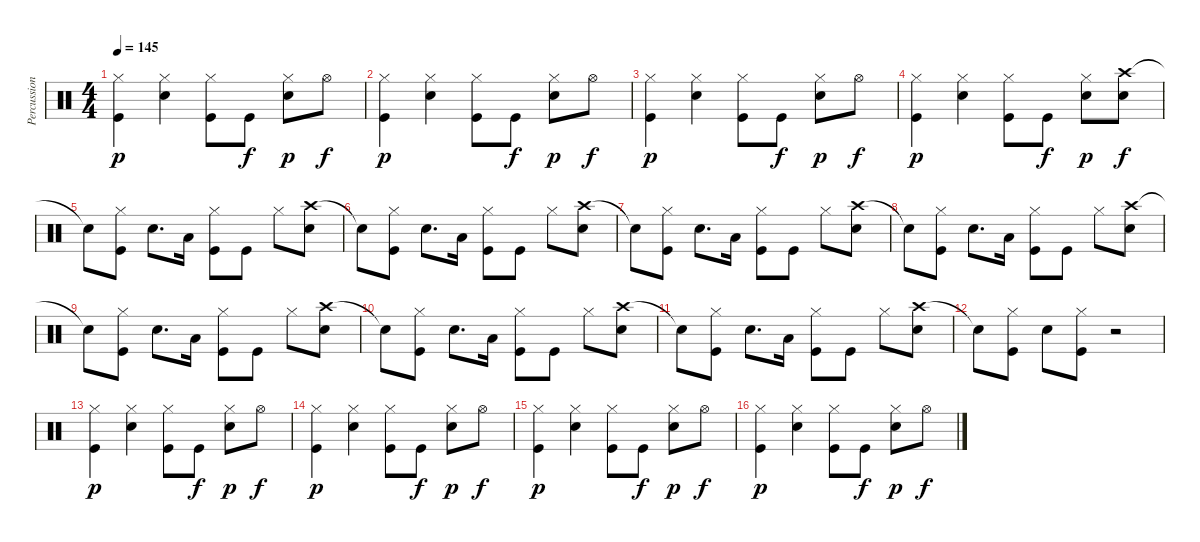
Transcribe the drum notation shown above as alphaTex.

\track ("Percussion" "Percussion") {instrument percussion}
\staff {score}
\articulation defaults
\ts (4 4)
\tempo 145
\clef neutral
\ks c
("Hi-Hat (closed)" "Kick (hit)").4{dy p} ("Hi-Hat (closed)" "Snare (hit) 2").4 ("Hi-Hat (closed)" "Kick (hit)").8 "Kick (hit)".8{dy f} ("Hi-Hat (closed)" "Snare (hit) 2").8{dy p} "Hi-Hat (open)".8{dy f} |
("Hi-Hat (closed)" "Kick (hit)").4{dy p} ("Hi-Hat (closed)" "Snare (hit) 2").4 ("Hi-Hat (closed)" "Kick (hit)").8 "Kick (hit)".8{dy f} ("Hi-Hat (closed)" "Snare (hit) 2").8{dy p} "Hi-Hat (open)".8{dy f} |
("Hi-Hat (closed)" "Kick (hit)").4{dy p} ("Hi-Hat (closed)" "Snare (hit) 2").4 ("Hi-Hat (closed)" "Kick (hit)").8 "Kick (hit)".8{dy f} ("Hi-Hat (closed)" "Snare (hit) 2").8{dy p} "Hi-Hat (open)".8{dy f} |
("Hi-Hat (closed)" "Kick (hit)").4{dy p} ("Hi-Hat (closed)" "Snare (hit) 2").4 ("Hi-Hat (closed)" "Kick (hit)").8 "Kick (hit)".8{dy f} ("Hi-Hat (closed)" "Snare (hit) 2").8{dy p} ("Crash high (hit)" "Snare (hit) 2").8{dy f} |
"Snare (hit) 2"{t}.8 ("Hi-Hat (closed)" "Kick (hit)").8 "Snare (hit) 2".8{d} "Low Tom (hit)".16 ("Hi-Hat (closed)" "Kick (hit)").8 "Kick (hit)".8 "Hi-Hat (closed)".8 ("Crash high (hit)" "Snare (hit) 2").8 |
"Snare (hit) 2"{t}.8 ("Hi-Hat (closed)" "Kick (hit)").8 "Snare (hit) 2".8{d} "Low Tom (hit)".16 ("Hi-Hat (closed)" "Kick (hit)").8 "Kick (hit)".8 "Hi-Hat (closed)".8 ("Crash high (hit)" "Snare (hit) 2").8 |
"Snare (hit) 2"{t}.8 ("Hi-Hat (closed)" "Kick (hit)").8 "Snare (hit) 2".8{d} "Low Tom (hit)".16 ("Hi-Hat (closed)" "Kick (hit)").8 "Kick (hit)".8 "Hi-Hat (closed)".8 ("Crash high (hit)" "Snare (hit) 2").8 |
"Snare (hit) 2"{t}.8 ("Hi-Hat (closed)" "Kick (hit)").8 "Snare (hit) 2".8{d} "Low Tom (hit)".16 ("Hi-Hat (closed)" "Kick (hit)").8 "Kick (hit)".8 "Hi-Hat (closed)".8 ("Crash high (hit)" "Snare (hit) 2").8 |
"Snare (hit) 2"{t}.8 ("Hi-Hat (closed)" "Kick (hit)").8 "Snare (hit) 2".8{d} "Low Tom (hit)".16 ("Hi-Hat (closed)" "Kick (hit)").8 "Kick (hit)".8 "Hi-Hat (closed)".8 ("Crash high (hit)" "Snare (hit) 2").8 |
"Snare (hit) 2"{t}.8 ("Hi-Hat (closed)" "Kick (hit)").8 "Snare (hit) 2".8{d} "Low Tom (hit)".16 ("Hi-Hat (closed)" "Kick (hit)").8 "Kick (hit)".8 "Hi-Hat (closed)".8 ("Crash high (hit)" "Snare (hit) 2").8 |
"Snare (hit) 2"{t}.8 ("Hi-Hat (closed)" "Kick (hit)").8 "Snare (hit) 2".8{d} "Low Tom (hit)".16 ("Hi-Hat (closed)" "Kick (hit)").8 "Kick (hit)".8 "Hi-Hat (closed)".8 ("Crash high (hit)" "Snare (hit) 2").8 |
"Snare (hit) 2"{t}.8 ("Hi-Hat (closed)" "Kick (hit)").8 "Snare (hit) 2".8 ("Hi-Hat (closed)" "Kick (hit)").8 r.2 |
("Hi-Hat (closed)" "Kick (hit)").4{dy p} ("Hi-Hat (closed)" "Snare (hit) 2").4 ("Hi-Hat (closed)" "Kick (hit)").8 "Kick (hit)".8{dy f} ("Hi-Hat (closed)" "Snare (hit) 2").8{dy p} "Hi-Hat (open)".8{dy f} |
("Hi-Hat (closed)" "Kick (hit)").4{dy p} ("Hi-Hat (closed)" "Snare (hit) 2").4 ("Hi-Hat (closed)" "Kick (hit)").8 "Kick (hit)".8{dy f} ("Hi-Hat (closed)" "Snare (hit) 2").8{dy p} "Hi-Hat (open)".8{dy f} |
("Hi-Hat (closed)" "Kick (hit)").4{dy p} ("Hi-Hat (closed)" "Snare (hit) 2").4 ("Hi-Hat (closed)" "Kick (hit)").8 "Kick (hit)".8{dy f} ("Hi-Hat (closed)" "Snare (hit) 2").8{dy p} "Hi-Hat (open)".8{dy f} |
("Hi-Hat (closed)" "Kick (hit)").4{dy p} ("Hi-Hat (closed)" "Snare (hit) 2").4 ("Hi-Hat (closed)" "Kick (hit)").8 "Kick (hit)".8{dy f} ("Hi-Hat (closed)" "Snare (hit) 2").8{dy p} "Hi-Hat (open)".8{dy f}
